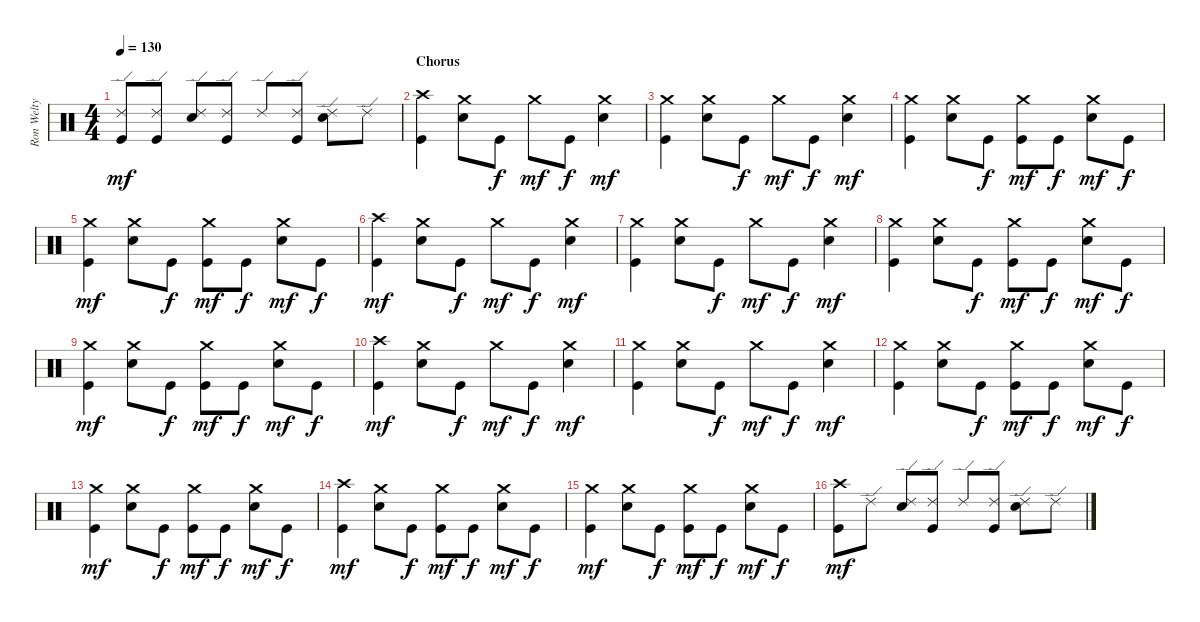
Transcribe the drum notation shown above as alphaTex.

\track ("Ron Welty" "Ron Welty") {instrument percussion}
\staff {score}
\articulation defaults
\ts (4 4)
\tempo 130
\clef neutral
\ks c
("Kick (hit)" "Ride (edge) 2").8{dy mf} ("Kick (hit)" "Ride (edge) 2").8 ("Electric Snare (hit)" "Ride (edge) 2").8 ("Kick (hit)" "Ride (edge) 2").8 "Ride (edge) 2".8 ("Kick (hit)" "Ride (edge) 2").8 ("Electric Snare (hit)" "Ride (edge) 2").8 "Ride (edge) 2".8 |
\section ("" "Chorus")
("Kick (hit)" "Crash high (hit)").4 ("Electric Snare (hit)" "Crash medium (hit)").8 "Kick (hit)".8{dy f} "Crash medium (hit)".8{dy mf} "Kick (hit)".8{dy f} ("Electric Snare (hit)" "Crash medium (hit)").4{dy mf} |
("Kick (hit)" "Crash medium (hit)").4 ("Electric Snare (hit)" "Crash medium (hit)").8 "Kick (hit)".8{dy f} "Crash medium (hit)".8{dy mf} "Kick (hit)".8{dy f} ("Electric Snare (hit)" "Crash medium (hit)").4{dy mf} |
("Kick (hit)" "Crash medium (hit)").4 ("Electric Snare (hit)" "Crash medium (hit)").8 "Kick (hit)".8{dy f} ("Kick (hit)" "Crash medium (hit)").8{dy mf} "Kick (hit)".8{dy f} ("Electric Snare (hit)" "Crash medium (hit)").8{dy mf} "Kick (hit)".8{dy f} |
("Kick (hit)" "Crash medium (hit)").4{dy mf} ("Electric Snare (hit)" "Crash medium (hit)").8 "Kick (hit)".8{dy f} ("Kick (hit)" "Crash medium (hit)").8{dy mf} "Kick (hit)".8{dy f} ("Electric Snare (hit)" "Crash medium (hit)").8{dy mf} "Kick (hit)".8{dy f} |
("Kick (hit)" "Crash high (hit)").4{dy mf} ("Electric Snare (hit)" "Crash medium (hit)").8 "Kick (hit)".8{dy f} "Crash medium (hit)".8{dy mf} "Kick (hit)".8{dy f} ("Electric Snare (hit)" "Crash medium (hit)").4{dy mf} |
("Kick (hit)" "Crash medium (hit)").4 ("Electric Snare (hit)" "Crash medium (hit)").8 "Kick (hit)".8{dy f} "Crash medium (hit)".8{dy mf} "Kick (hit)".8{dy f} ("Electric Snare (hit)" "Crash medium (hit)").4{dy mf} |
("Kick (hit)" "Crash medium (hit)").4 ("Electric Snare (hit)" "Crash medium (hit)").8 "Kick (hit)".8{dy f} ("Kick (hit)" "Crash medium (hit)").8{dy mf} "Kick (hit)".8{dy f} ("Electric Snare (hit)" "Crash medium (hit)").8{dy mf} "Kick (hit)".8{dy f} |
("Kick (hit)" "Crash medium (hit)").4{dy mf} ("Electric Snare (hit)" "Crash medium (hit)").8 "Kick (hit)".8{dy f} ("Kick (hit)" "Crash medium (hit)").8{dy mf} "Kick (hit)".8{dy f} ("Electric Snare (hit)" "Crash medium (hit)").8{dy mf} "Kick (hit)".8{dy f} |
("Kick (hit)" "Crash high (hit)").4{dy mf} ("Electric Snare (hit)" "Crash medium (hit)").8 "Kick (hit)".8{dy f} "Crash medium (hit)".8{dy mf} "Kick (hit)".8{dy f} ("Electric Snare (hit)" "Crash medium (hit)").4{dy mf} |
("Kick (hit)" "Crash medium (hit)").4 ("Electric Snare (hit)" "Crash medium (hit)").8 "Kick (hit)".8{dy f} "Crash medium (hit)".8{dy mf} "Kick (hit)".8{dy f} ("Electric Snare (hit)" "Crash medium (hit)").4{dy mf} |
("Kick (hit)" "Crash medium (hit)").4 ("Electric Snare (hit)" "Crash medium (hit)").8 "Kick (hit)".8{dy f} ("Kick (hit)" "Crash medium (hit)").8{dy mf} "Kick (hit)".8{dy f} ("Electric Snare (hit)" "Crash medium (hit)").8{dy mf} "Kick (hit)".8{dy f} |
("Kick (hit)" "Crash medium (hit)").4{dy mf} ("Electric Snare (hit)" "Crash medium (hit)").8 "Kick (hit)".8{dy f} ("Kick (hit)" "Crash medium (hit)").8{dy mf} "Kick (hit)".8{dy f} ("Electric Snare (hit)" "Crash medium (hit)").8{dy mf} "Kick (hit)".8{dy f} |
("Kick (hit)" "Crash high (hit)").4{dy mf} ("Electric Snare (hit)" "Crash medium (hit)").8 "Kick (hit)".8{dy f} ("Kick (hit)" "Crash medium (hit)").8{dy mf} "Kick (hit)".8{dy f} ("Electric Snare (hit)" "Crash medium (hit)").8{dy mf} "Kick (hit)".8{dy f} |
("Kick (hit)" "Crash medium (hit)").4{dy mf} ("Electric Snare (hit)" "Crash medium (hit)").8 "Kick (hit)".8{dy f} ("Kick (hit)" "Crash medium (hit)").8{dy mf} "Kick (hit)".8{dy f} ("Electric Snare (hit)" "Crash medium (hit)").8{dy mf} "Kick (hit)".8{dy f} |
("Kick (hit)" "Crash high (hit)").8{dy mf} "Ride (edge) 2".8 ("Electric Snare (hit)" "Ride (edge) 2").8 ("Kick (hit)" "Ride (edge) 2").8 "Ride (edge) 2".8 ("Kick (hit)" "Ride (edge) 2").8 ("Electric Snare (hit)" "Ride (edge) 2").8 "Ride (edge) 2".8
